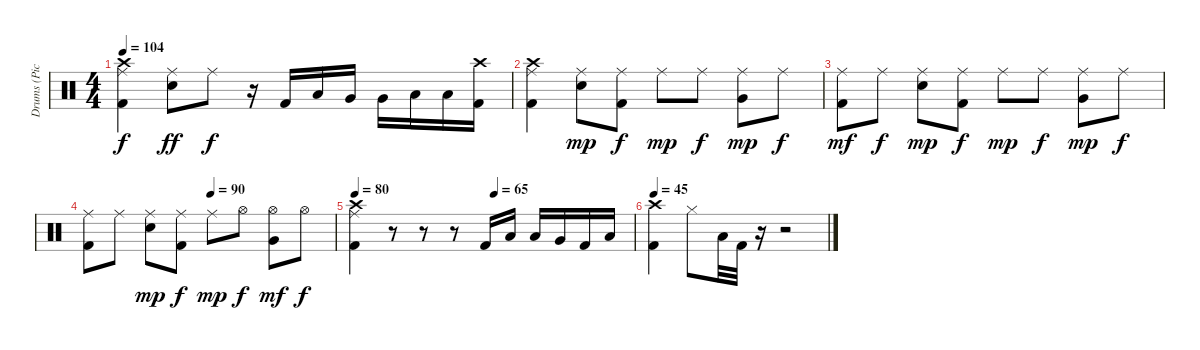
\track ("Drums (Pick Whiters)" "Drums (Pic") {instrument percussion}
\staff {score}
\articulation defaults
\ts (4 4)
\tempo 104
\clef neutral
\ks c
("Ride (middle)" "Crash high (hit)" "Kick (hit) 2").4{dy f} ("Snare (hit) 2" "Ride (middle)").8{dy ff} "Ride (middle)".8{dy f} r.16 "Kick (hit) 2".16 "Low Tom (hit)".16 "Very Low Tom (hit)".16 "Very Low Tom (hit)".16 "Low Floor Tom (hit)".16 "Low Floor Tom (hit)".16 ("Kick (hit) 2" "Crash high (hit)").16 |
("Ride (middle)" "Crash high (hit)" "Kick (hit) 2").4 ("Snare (hit) 2" "Ride (middle)").8{dy mp} ("Kick (hit) 2" "Ride (middle)").8{dy f} "Ride (middle)".8{dy mp} "Ride (middle)".8{dy f} ("Very Low Tom (hit)" "Ride (middle)").8{dy mp} "Ride (middle)".8{dy f} |
("Ride (middle)" "Kick (hit) 2").8{dy mf} "Ride (middle)".8{dy f} ("Snare (hit) 2" "Ride (middle)").8{dy mp} ("Kick (hit) 2" "Ride (middle)").8{dy f} "Ride (middle)".8{dy mp} "Ride (middle)".8{dy f} ("Very Low Tom (hit)" "Ride (middle)").8{dy mp} "Ride (middle)".8{dy f} |
\tempo (90 0.5)
("Ride (middle)" "Kick (hit) 2").8 "Ride (middle)".8 ("Snare (hit) 2" "Ride (middle)").8{dy mp} ("Kick (hit) 2" "Ride (middle)").8{dy f} "Ride (middle)".8{dy mp} "Hi-Hat (open)".8{dy f} ("Very Low Tom (hit)" "Hi-Hat (open)").8{dy mf} "Hi-Hat (open)".8{dy f} |
\tempo 80
\tempo (65 0.5)
("Ride (middle)" "Crash high (hit)" "Kick (hit) 2").4 r.8 r.8 r.8 "Kick (hit) 2".16 "Low Tom (hit)".16 "Low Tom (hit)".16 "Very Low Tom (hit)".16 "Kick (hit) 2".16 "Low Floor Tom (hit)".16 |
\tempo 45
("Crash high (hit)" "Kick (hit) 2").4 "Hi-Hat (closed)".8 "Low Floor Tom (hit)".32 "Kick (hit) 2".32 r.16 r.2
